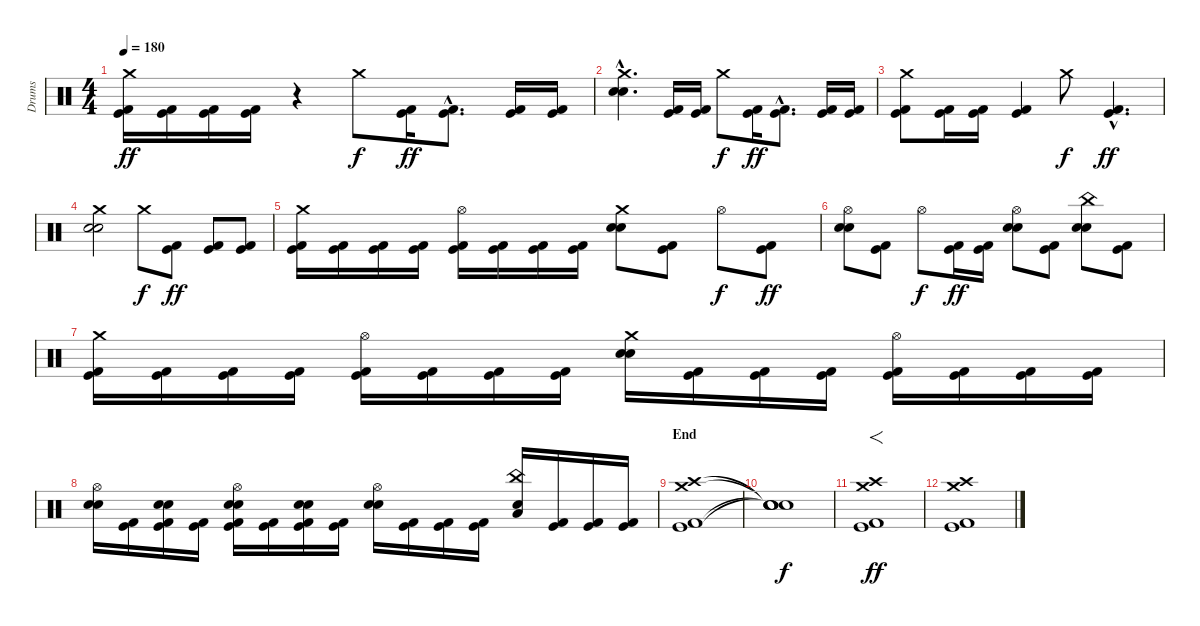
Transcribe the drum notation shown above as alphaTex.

\track ("Drums" "Drums") {instrument percussion}
\staff {score}
\articulation defaults
\ts (4 4)
\tempo 180
\clef neutral
\ks c
("Kick (hit)" "Kick (hit) 2" "Crash medium (hit)").16{dy ff} ("Kick (hit)" "Kick (hit) 2").16 ("Kick (hit)" "Kick (hit) 2").16 ("Kick (hit)" "Kick (hit) 2").16 r.4 "Crash medium (hit)".8{dy f} ("Kick (hit)" "Kick (hit) 2").16{dy ff} ("Kick (hit)"{hac} "Kick (hit) 2"{hac}).8{d} ("Kick (hit)" "Kick (hit) 2").16 ("Kick (hit)" "Kick (hit) 2").16 |
("Electric Snare (hit)"{hac} "Electric Snare (hit)"{hac} "Crash medium (hit)"{hac}).4{d} ("Kick (hit)" "Kick (hit) 2").16 ("Kick (hit)" "Kick (hit) 2").16 "Crash medium (hit)".8{dy f} ("Kick (hit)" "Kick (hit) 2").16{dy ff} ("Kick (hit)"{hac} "Kick (hit) 2"{hac}).8{d} ("Kick (hit)" "Kick (hit) 2").16 ("Kick (hit)" "Kick (hit) 2").16 |
("Kick (hit)" "Kick (hit) 2" "Crash medium (hit)").8 ("Kick (hit)" "Kick (hit) 2").16 ("Kick (hit)" "Kick (hit) 2").16 ("Kick (hit)" "Kick (hit) 2").4 "Crash medium (hit)".8{dy f} ("Kick (hit)"{hac} "Kick (hit) 2"{hac}).4{d dy ff} |
("Electric Snare (hit)" "Electric Snare (hit)" "Crash medium (hit)").2 "Crash medium (hit)".8{dy f} ("Kick (hit)" "Kick (hit) 2").8{dy ff} ("Kick (hit)" "Kick (hit) 2").8 ("Kick (hit)" "Kick (hit) 2").8 |
("Kick (hit)" "Kick (hit) 2" "Crash medium (hit)").16 ("Kick (hit)" "Kick (hit) 2").16 ("Kick (hit)" "Kick (hit) 2").16 ("Kick (hit)" "Kick (hit) 2").16 ("Kick (hit)" "Kick (hit) 2" "Hi-Hat (open)").16 ("Kick (hit)" "Kick (hit) 2").16 ("Kick (hit)" "Kick (hit) 2").16 ("Kick (hit)" "Kick (hit) 2").16 ("Electric Snare (hit)" "Electric Snare (hit)" "Crash medium (hit)").8 ("Kick (hit)" "Kick (hit) 2").8 "Hi-Hat (open)".8{dy f} ("Kick (hit)" "Kick (hit) 2").8{dy ff} |
("Electric Snare (hit)" "Electric Snare (hit)" "Hi-Hat (open)").8 ("Kick (hit)" "Kick (hit) 2").8 "Hi-Hat (open)".8{dy f} ("Kick (hit)" "Kick (hit) 2").16{dy ff} ("Kick (hit)" "Kick (hit) 2").16 ("Electric Snare (hit)" "Electric Snare (hit)" "Hi-Hat (open)").8 ("Kick (hit)" "Kick (hit) 2").8 ("Electric Snare (hit)" "Electric Snare (hit)" "China (hit)").8 ("Kick (hit)" "Kick (hit) 2").8 |
("Kick (hit)" "Kick (hit) 2" "Crash medium (hit)").16 ("Kick (hit)" "Kick (hit) 2").16 ("Kick (hit)" "Kick (hit) 2").16 ("Kick (hit)" "Kick (hit) 2").16 ("Kick (hit)" "Kick (hit) 2" "Hi-Hat (open)").16 ("Kick (hit)" "Kick (hit) 2").16 ("Kick (hit)" "Kick (hit) 2").16 ("Kick (hit)" "Kick (hit) 2").16 ("Electric Snare (hit)" "Electric Snare (hit)" "Crash medium (hit)").16 ("Kick (hit)" "Kick (hit) 2").16 ("Kick (hit)" "Kick (hit) 2").16 ("Kick (hit)" "Kick (hit) 2").16 ("Kick (hit)" "Kick (hit) 2" "Hi-Hat (open)").16 ("Kick (hit)" "Kick (hit) 2").16 ("Kick (hit)" "Kick (hit) 2").16 ("Kick (hit)" "Kick (hit) 2").16 |
("Electric Snare (hit)" "Electric Snare (hit)" "Hi-Hat (open)").16 ("Kick (hit)" "Kick (hit) 2").16 ("Kick (hit)" "Kick (hit) 2" "Electric Snare (hit)" "Electric Snare (hit)").16 ("Kick (hit)" "Kick (hit) 2").16 ("Kick (hit)" "Kick (hit) 2" "Electric Snare (hit)" "Electric Snare (hit)" "Hi-Hat (open)").16 ("Kick (hit)" "Kick (hit) 2").16 ("Kick (hit)" "Kick (hit) 2" "Electric Snare (hit)" "Electric Snare (hit)").16 ("Kick (hit)" "Kick (hit) 2").16 ("Electric Snare (hit)" "Electric Snare (hit)" "Hi-Hat (open)").16 ("Kick (hit)" "Kick (hit) 2").16 ("Kick (hit)" "Kick (hit) 2").16 ("Kick (hit)" "Kick (hit) 2").16 ("Electric Snare (hit)" "Low Floor Tom (hit)" "China (hit)").16 ("Kick (hit)" "Kick (hit) 2").16 ("Kick (hit)" "Kick (hit) 2").16 ("Kick (hit)" "Kick (hit) 2").16 |
\section ("" "End")
("Kick (hit)" "Kick (hit) 2" "Crash high (hit)" "Crash medium (hit)").1 |
("Snare (hit)"{t} "Snare (hit)"{t} "Snare (hit)"{t} "Snare (hit)"{t}).1{dy f} |
("Kick (hit)" "Kick (hit) 2" "Crash high (hit)" "Crash medium (hit)").1{f dy ff} |
("Kick (hit)" "Kick (hit) 2" "Crash high (hit)" "Crash medium (hit)").1
